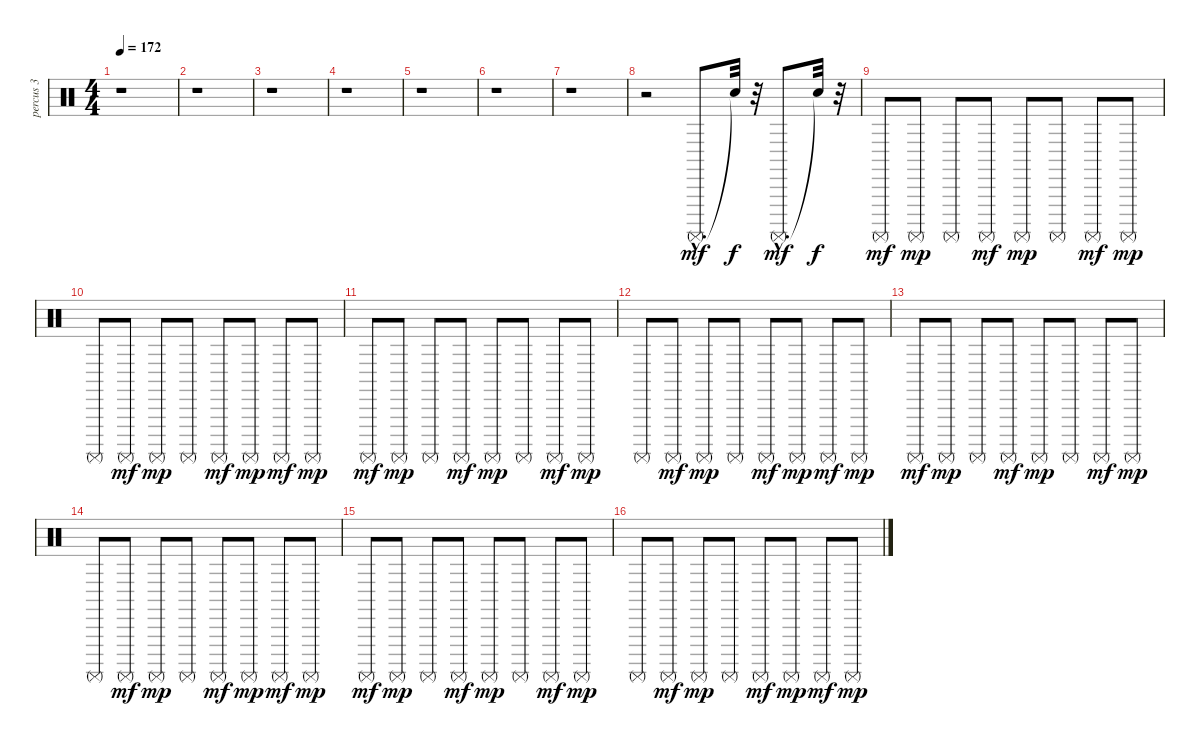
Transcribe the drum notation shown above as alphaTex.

\track ("percus 3" "percus 3") {instrument percussion}
\staff {score}
\articulation defaults
\ts (4 4)
\tempo 172
\clef neutral
\ks c
r.1{dy mf} |
r.1 |
r.1 |
r.1 |
r.1 |
r.1 |
r.1 |
r.2 "Surdo (mute)"{hac}.8{d} "Snare (hit)"{t}.32{dy f} r.32 "Surdo (mute)"{hac}.8{d dy mf} "Snare (hit)"{t}.32{dy f} r.32 |
"Surdo (mute)".8{dy mf} "Surdo (mute)".8{dy mp} "Surdo (mute)".8 "Surdo (mute)".8{dy mf} "Surdo (mute)".8{dy mp} "Surdo (mute)".8 "Surdo (mute)".8{dy mf} "Surdo (mute)".8{dy mp} |
"Surdo (mute)".8 "Surdo (mute)".8{dy mf} "Surdo (mute)".8{dy mp} "Surdo (mute)".8 "Surdo (mute)".8{dy mf} "Surdo (mute)".8{dy mp} "Surdo (mute)".8{dy mf} "Surdo (mute)".8{dy mp} |
"Surdo (mute)".8{dy mf} "Surdo (mute)".8{dy mp} "Surdo (mute)".8 "Surdo (mute)".8{dy mf} "Surdo (mute)".8{dy mp} "Surdo (mute)".8 "Surdo (mute)".8{dy mf} "Surdo (mute)".8{dy mp} |
"Surdo (mute)".8 "Surdo (mute)".8{dy mf} "Surdo (mute)".8{dy mp} "Surdo (mute)".8 "Surdo (mute)".8{dy mf} "Surdo (mute)".8{dy mp} "Surdo (mute)".8{dy mf} "Surdo (mute)".8{dy mp} |
"Surdo (mute)".8{dy mf} "Surdo (mute)".8{dy mp} "Surdo (mute)".8 "Surdo (mute)".8{dy mf} "Surdo (mute)".8{dy mp} "Surdo (mute)".8 "Surdo (mute)".8{dy mf} "Surdo (mute)".8{dy mp} |
"Surdo (mute)".8 "Surdo (mute)".8{dy mf} "Surdo (mute)".8{dy mp} "Surdo (mute)".8 "Surdo (mute)".8{dy mf} "Surdo (mute)".8{dy mp} "Surdo (mute)".8{dy mf} "Surdo (mute)".8{dy mp} |
"Surdo (mute)".8{dy mf} "Surdo (mute)".8{dy mp} "Surdo (mute)".8 "Surdo (mute)".8{dy mf} "Surdo (mute)".8{dy mp} "Surdo (mute)".8 "Surdo (mute)".8{dy mf} "Surdo (mute)".8{dy mp} |
"Surdo (mute)".8 "Surdo (mute)".8{dy mf} "Surdo (mute)".8{dy mp} "Surdo (mute)".8 "Surdo (mute)".8{dy mf} "Surdo (mute)".8{dy mp} "Surdo (mute)".8{dy mf} "Surdo (mute)".8{dy mp}
